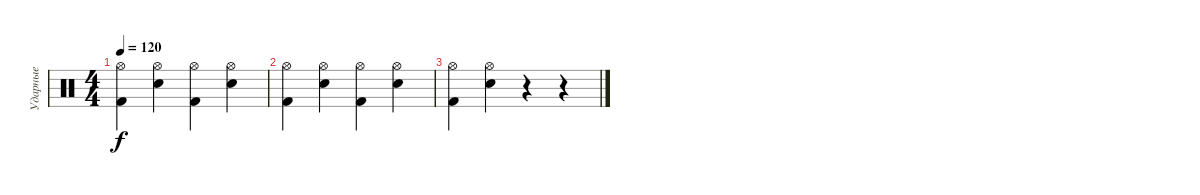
\track ("Ударные" "Ударные") {instrument percussion}
\staff {score}
\articulation defaults
\ts (4 4)
\tempo 120
\clef neutral
\ks c
("Hi-Hat (open)" "Kick (hit) 2").4{dy f} ("Hi-Hat (open)" "Snare (hit) 2").4 ("Hi-Hat (open)" "Kick (hit) 2").4 ("Hi-Hat (open)" "Snare (hit) 2").4 |
("Hi-Hat (open)" "Kick (hit) 2").4 ("Hi-Hat (open)" "Snare (hit) 2").4 ("Hi-Hat (open)" "Kick (hit) 2").4 ("Hi-Hat (open)" "Snare (hit) 2").4 |
("Hi-Hat (open)" "Kick (hit) 2").4 ("Hi-Hat (open)" "Snare (hit) 2").4 r.4 r.4
